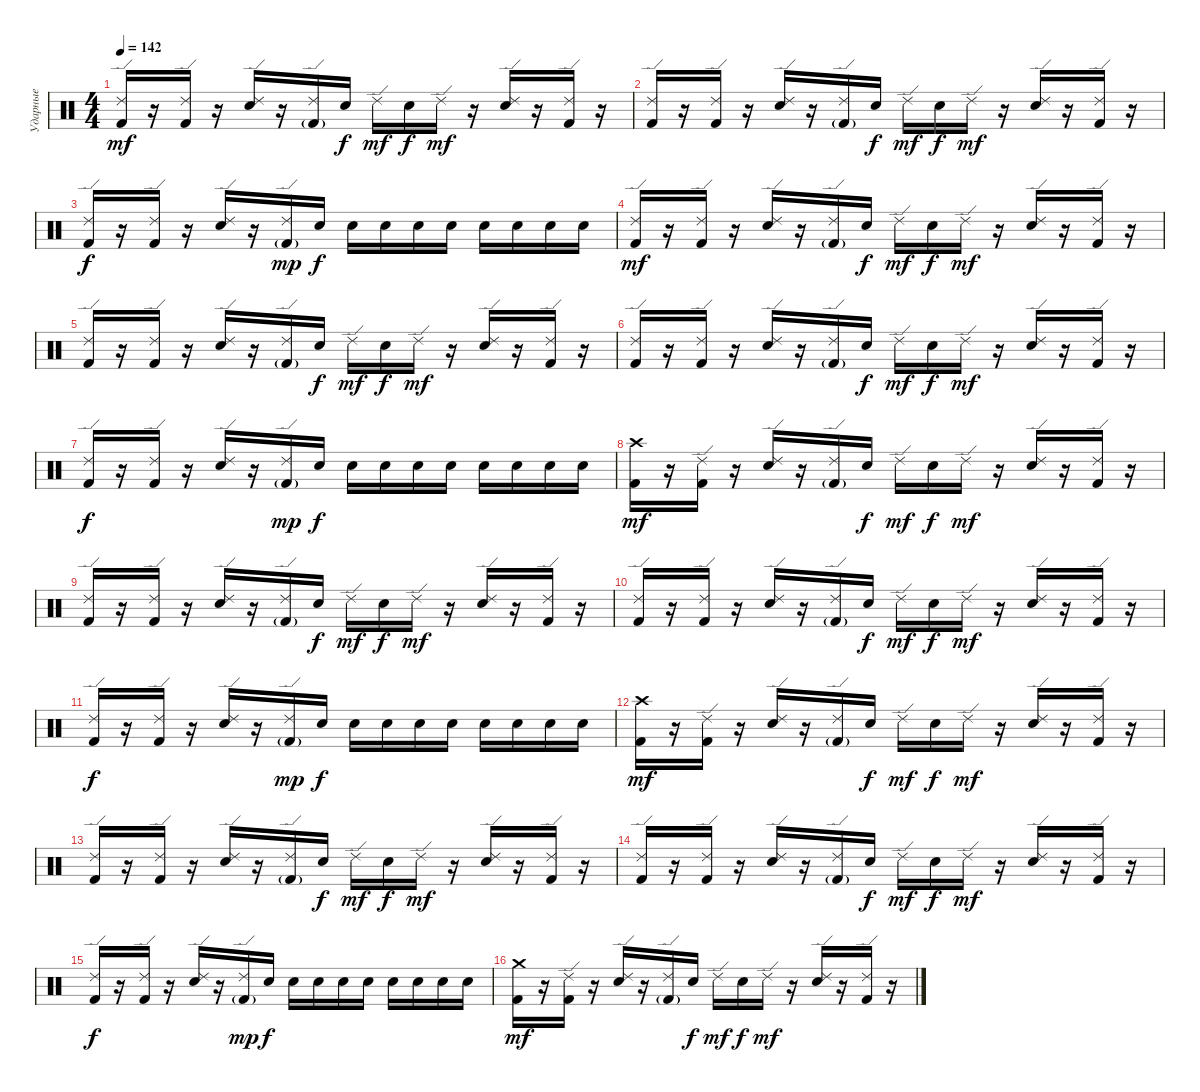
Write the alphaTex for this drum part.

\track ("Ударные" "Ударные") {instrument percussion}
\staff {score}
\articulation defaults
\ts (4 4)
\tempo 142
\clef neutral
\ks c
("Kick (hit) 2" "Ride (edge) 2").16{dy mf} r.16 ("Kick (hit) 2" "Ride (edge) 2").16 r.16 ("Electric Snare (hit)" "Ride (edge) 2").16 r.16 ("Kick (hit) 2"{g} "Ride (edge) 2").16 "Electric Snare (hit)".16{dy f} "Ride (edge) 2".16{dy mf} "Electric Snare (hit)".16{dy f} "Ride (edge) 2".16{dy mf} r.16 ("Electric Snare (hit)" "Ride (edge) 2").16 r.16 ("Kick (hit) 2" "Ride (edge) 2").16 r.16 |
("Kick (hit) 2" "Ride (edge) 2").16 r.16 ("Kick (hit) 2" "Ride (edge) 2").16 r.16 ("Electric Snare (hit)" "Ride (edge) 2").16 r.16 ("Kick (hit) 2"{g} "Ride (edge) 2").16 "Electric Snare (hit)".16{dy f} "Ride (edge) 2".16{dy mf} "Electric Snare (hit)".16{dy f} "Ride (edge) 2".16{dy mf} r.16 ("Electric Snare (hit)" "Ride (edge) 2").16 r.16 ("Kick (hit) 2" "Ride (edge) 2").16 r.16 |
("Kick (hit) 2" "Ride (edge) 2").16{dy f} r.16 ("Kick (hit) 2" "Ride (edge) 2").16 r.16 ("Electric Snare (hit)" "Ride (edge) 2").16 r.16 ("Kick (hit) 2"{g} "Ride (edge) 2").16{dy mp} "Electric Snare (hit)".16{dy f} "Electric Snare (hit)".16 "Electric Snare (hit)".16 "Electric Snare (hit)".16 "Electric Snare (hit)".16 "Electric Snare (hit)".16 "Electric Snare (hit)".16 "Electric Snare (hit)".16 "Electric Snare (hit)".16 |
("Kick (hit) 2" "Ride (edge) 2").16{dy mf} r.16 ("Kick (hit) 2" "Ride (edge) 2").16 r.16 ("Electric Snare (hit)" "Ride (edge) 2").16 r.16 ("Kick (hit) 2"{g} "Ride (edge) 2").16 "Electric Snare (hit)".16{dy f} "Ride (edge) 2".16{dy mf} "Electric Snare (hit)".16{dy f} "Ride (edge) 2".16{dy mf} r.16 ("Electric Snare (hit)" "Ride (edge) 2").16 r.16 ("Kick (hit) 2" "Ride (edge) 2").16 r.16 |
("Kick (hit) 2" "Ride (edge) 2").16 r.16 ("Kick (hit) 2" "Ride (edge) 2").16 r.16 ("Electric Snare (hit)" "Ride (edge) 2").16 r.16 ("Kick (hit) 2"{g} "Ride (edge) 2").16 "Electric Snare (hit)".16{dy f} "Ride (edge) 2".16{dy mf} "Electric Snare (hit)".16{dy f} "Ride (edge) 2".16{dy mf} r.16 ("Electric Snare (hit)" "Ride (edge) 2").16 r.16 ("Kick (hit) 2" "Ride (edge) 2").16 r.16 |
("Kick (hit) 2" "Ride (edge) 2").16 r.16 ("Kick (hit) 2" "Ride (edge) 2").16 r.16 ("Electric Snare (hit)" "Ride (edge) 2").16 r.16 ("Kick (hit) 2"{g} "Ride (edge) 2").16 "Electric Snare (hit)".16{dy f} "Ride (edge) 2".16{dy mf} "Electric Snare (hit)".16{dy f} "Ride (edge) 2".16{dy mf} r.16 ("Electric Snare (hit)" "Ride (edge) 2").16 r.16 ("Kick (hit) 2" "Ride (edge) 2").16 r.16 |
("Kick (hit) 2" "Ride (edge) 2").16{dy f} r.16 ("Kick (hit) 2" "Ride (edge) 2").16 r.16 ("Electric Snare (hit)" "Ride (edge) 2").16 r.16 ("Kick (hit) 2"{g} "Ride (edge) 2").16{dy mp} "Electric Snare (hit)".16{dy f} "Electric Snare (hit)".16 "Electric Snare (hit)".16 "Electric Snare (hit)".16 "Electric Snare (hit)".16 "Electric Snare (hit)".16 "Electric Snare (hit)".16 "Electric Snare (hit)".16 "Electric Snare (hit)".16 |
("Kick (hit) 2" "Crash high (hit)").16{dy mf} r.16 ("Kick (hit) 2" "Ride (edge) 2").16 r.16 ("Electric Snare (hit)" "Ride (edge) 2").16 r.16 ("Kick (hit) 2"{g} "Ride (edge) 2").16 "Electric Snare (hit)".16{dy f} "Ride (edge) 2".16{dy mf} "Electric Snare (hit)".16{dy f} "Ride (edge) 2".16{dy mf} r.16 ("Electric Snare (hit)" "Ride (edge) 2").16 r.16 ("Kick (hit) 2" "Ride (edge) 2").16 r.16 |
("Kick (hit) 2" "Ride (edge) 2").16 r.16 ("Kick (hit) 2" "Ride (edge) 2").16 r.16 ("Electric Snare (hit)" "Ride (edge) 2").16 r.16 ("Kick (hit) 2"{g} "Ride (edge) 2").16 "Electric Snare (hit)".16{dy f} "Ride (edge) 2".16{dy mf} "Electric Snare (hit)".16{dy f} "Ride (edge) 2".16{dy mf} r.16 ("Electric Snare (hit)" "Ride (edge) 2").16 r.16 ("Kick (hit) 2" "Ride (edge) 2").16 r.16 |
("Kick (hit) 2" "Ride (edge) 2").16 r.16 ("Kick (hit) 2" "Ride (edge) 2").16 r.16 ("Electric Snare (hit)" "Ride (edge) 2").16 r.16 ("Kick (hit) 2"{g} "Ride (edge) 2").16 "Electric Snare (hit)".16{dy f} "Ride (edge) 2".16{dy mf} "Electric Snare (hit)".16{dy f} "Ride (edge) 2".16{dy mf} r.16 ("Electric Snare (hit)" "Ride (edge) 2").16 r.16 ("Kick (hit) 2" "Ride (edge) 2").16 r.16 |
("Kick (hit) 2" "Ride (edge) 2").16{dy f} r.16 ("Kick (hit) 2" "Ride (edge) 2").16 r.16 ("Electric Snare (hit)" "Ride (edge) 2").16 r.16 ("Kick (hit) 2"{g} "Ride (edge) 2").16{dy mp} "Electric Snare (hit)".16{dy f} "Electric Snare (hit)".16 "Electric Snare (hit)".16 "Electric Snare (hit)".16 "Electric Snare (hit)".16 "Electric Snare (hit)".16 "Electric Snare (hit)".16 "Electric Snare (hit)".16 "Electric Snare (hit)".16 |
("Kick (hit) 2" "Crash high (hit)").16{dy mf} r.16 ("Kick (hit) 2" "Ride (edge) 2").16 r.16 ("Electric Snare (hit)" "Ride (edge) 2").16 r.16 ("Kick (hit) 2"{g} "Ride (edge) 2").16 "Electric Snare (hit)".16{dy f} "Ride (edge) 2".16{dy mf} "Electric Snare (hit)".16{dy f} "Ride (edge) 2".16{dy mf} r.16 ("Electric Snare (hit)" "Ride (edge) 2").16 r.16 ("Kick (hit) 2" "Ride (edge) 2").16 r.16 |
("Kick (hit) 2" "Ride (edge) 2").16 r.16 ("Kick (hit) 2" "Ride (edge) 2").16 r.16 ("Electric Snare (hit)" "Ride (edge) 2").16 r.16 ("Kick (hit) 2"{g} "Ride (edge) 2").16 "Electric Snare (hit)".16{dy f} "Ride (edge) 2".16{dy mf} "Electric Snare (hit)".16{dy f} "Ride (edge) 2".16{dy mf} r.16 ("Electric Snare (hit)" "Ride (edge) 2").16 r.16 ("Kick (hit) 2" "Ride (edge) 2").16 r.16 |
("Kick (hit) 2" "Ride (edge) 2").16 r.16 ("Kick (hit) 2" "Ride (edge) 2").16 r.16 ("Electric Snare (hit)" "Ride (edge) 2").16 r.16 ("Kick (hit) 2"{g} "Ride (edge) 2").16 "Electric Snare (hit)".16{dy f} "Ride (edge) 2".16{dy mf} "Electric Snare (hit)".16{dy f} "Ride (edge) 2".16{dy mf} r.16 ("Electric Snare (hit)" "Ride (edge) 2").16 r.16 ("Kick (hit) 2" "Ride (edge) 2").16 r.16 |
("Kick (hit) 2" "Ride (edge) 2").16{dy f} r.16 ("Kick (hit) 2" "Ride (edge) 2").16 r.16 ("Electric Snare (hit)" "Ride (edge) 2").16 r.16 ("Kick (hit) 2"{g} "Ride (edge) 2").16{dy mp} "Electric Snare (hit)".16{dy f} "Electric Snare (hit)".16 "Electric Snare (hit)".16 "Electric Snare (hit)".16 "Electric Snare (hit)".16 "Electric Snare (hit)".16 "Electric Snare (hit)".16 "Electric Snare (hit)".16 "Electric Snare (hit)".16 |
("Kick (hit) 2" "Crash medium (hit)").16{dy mf} r.16 ("Kick (hit) 2" "Ride (edge) 2").16 r.16 ("Electric Snare (hit)" "Ride (edge) 2").16 r.16 ("Kick (hit) 2"{g} "Ride (edge) 2").16 "Electric Snare (hit)".16{dy f} "Ride (edge) 2".16{dy mf} "Electric Snare (hit)".16{dy f} "Ride (edge) 2".16{dy mf} r.16 ("Electric Snare (hit)" "Ride (edge) 2").16 r.16 ("Kick (hit) 2" "Ride (edge) 2").16 r.16
